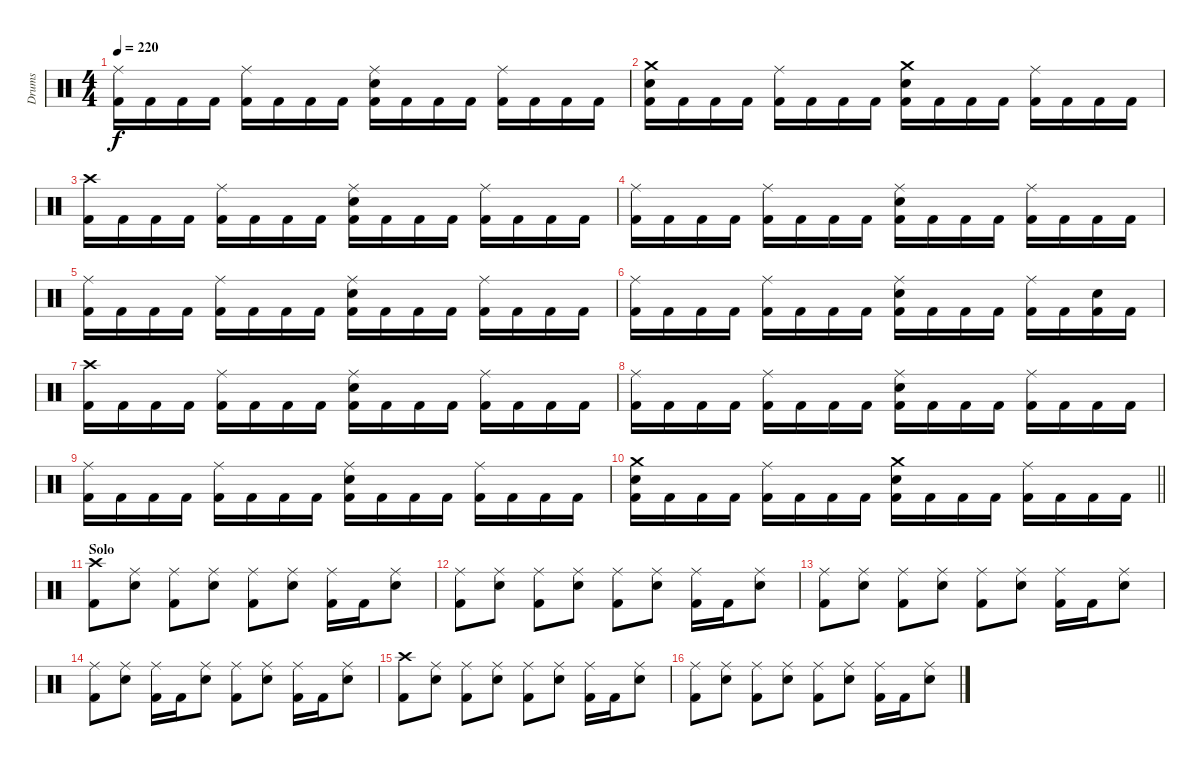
\track ("Drums" "Drums") {instrument percussion}
\staff {score}
\articulation defaults
\ts (4 4)
\tempo 220
\clef neutral
\ks c
("Ride (middle)" "Kick (hit) 2").16{dy f} "Kick (hit) 2".16 "Kick (hit) 2".16 "Kick (hit) 2".16 ("Ride (middle)" "Kick (hit) 2").16 "Kick (hit) 2".16 "Kick (hit) 2".16 "Kick (hit) 2".16 ("Ride (middle)" "Snare (hit) 2" "Kick (hit) 2").16 "Kick (hit) 2".16 "Kick (hit) 2".16 "Kick (hit) 2".16 ("Ride (middle)" "Kick (hit) 2").16 "Kick (hit) 2".16 "Kick (hit) 2".16 "Kick (hit) 2".16 |
("Crash medium (hit)" "Snare (hit) 2" "Kick (hit) 2").16 "Kick (hit) 2".16 "Kick (hit) 2".16 "Kick (hit) 2".16 ("Ride (middle)" "Kick (hit) 2").16 "Kick (hit) 2".16 "Kick (hit) 2".16 "Kick (hit) 2".16 ("Crash medium (hit)" "Snare (hit) 2" "Kick (hit) 2").16 "Kick (hit) 2".16 "Kick (hit) 2".16 "Kick (hit) 2".16 ("Ride (middle)" "Kick (hit) 2").16 "Kick (hit) 2".16 "Kick (hit) 2".16 "Kick (hit) 2".16 |
("Crash high (hit)" "Kick (hit) 2").16 "Kick (hit) 2".16 "Kick (hit) 2".16 "Kick (hit) 2".16 ("Ride (middle)" "Kick (hit) 2").16 "Kick (hit) 2".16 "Kick (hit) 2".16 "Kick (hit) 2".16 ("Ride (middle)" "Snare (hit) 2" "Kick (hit) 2").16 "Kick (hit) 2".16 "Kick (hit) 2".16 "Kick (hit) 2".16 ("Ride (middle)" "Kick (hit) 2").16 "Kick (hit) 2".16 "Kick (hit) 2".16 "Kick (hit) 2".16 |
("Ride (middle)" "Kick (hit) 2").16 "Kick (hit) 2".16 "Kick (hit) 2".16 "Kick (hit) 2".16 ("Ride (middle)" "Kick (hit) 2").16 "Kick (hit) 2".16 "Kick (hit) 2".16 "Kick (hit) 2".16 ("Ride (middle)" "Snare (hit) 2" "Kick (hit) 2").16 "Kick (hit) 2".16 "Kick (hit) 2".16 "Kick (hit) 2".16 ("Ride (middle)" "Kick (hit) 2").16 "Kick (hit) 2".16 "Kick (hit) 2".16 "Kick (hit) 2".16 |
("Ride (middle)" "Kick (hit) 2").16 "Kick (hit) 2".16 "Kick (hit) 2".16 "Kick (hit) 2".16 ("Ride (middle)" "Kick (hit) 2").16 "Kick (hit) 2".16 "Kick (hit) 2".16 "Kick (hit) 2".16 ("Ride (middle)" "Snare (hit) 2" "Kick (hit) 2").16 "Kick (hit) 2".16 "Kick (hit) 2".16 "Kick (hit) 2".16 ("Ride (middle)" "Kick (hit) 2").16 "Kick (hit) 2".16 "Kick (hit) 2".16 "Kick (hit) 2".16 |
("Ride (middle)" "Kick (hit) 2").16 "Kick (hit) 2".16 "Kick (hit) 2".16 "Kick (hit) 2".16 ("Ride (middle)" "Kick (hit) 2").16 "Kick (hit) 2".16 "Kick (hit) 2".16 "Kick (hit) 2".16 ("Ride (middle)" "Snare (hit) 2" "Kick (hit) 2").16 "Kick (hit) 2".16 "Kick (hit) 2".16 "Kick (hit) 2".16 ("Ride (middle)" "Kick (hit) 2").16 "Kick (hit) 2".16 ("Snare (hit) 2" "Kick (hit) 2").16 "Kick (hit) 2".16 |
("Crash high (hit)" "Kick (hit) 2").16 "Kick (hit) 2".16 "Kick (hit) 2".16 "Kick (hit) 2".16 ("Ride (middle)" "Kick (hit) 2").16 "Kick (hit) 2".16 "Kick (hit) 2".16 "Kick (hit) 2".16 ("Ride (middle)" "Snare (hit) 2" "Kick (hit) 2").16 "Kick (hit) 2".16 "Kick (hit) 2".16 "Kick (hit) 2".16 ("Ride (middle)" "Kick (hit) 2").16 "Kick (hit) 2".16 "Kick (hit) 2".16 "Kick (hit) 2".16 |
("Ride (middle)" "Kick (hit) 2").16 "Kick (hit) 2".16 "Kick (hit) 2".16 "Kick (hit) 2".16 ("Ride (middle)" "Kick (hit) 2").16 "Kick (hit) 2".16 "Kick (hit) 2".16 "Kick (hit) 2".16 ("Ride (middle)" "Snare (hit) 2" "Kick (hit) 2").16 "Kick (hit) 2".16 "Kick (hit) 2".16 "Kick (hit) 2".16 ("Ride (middle)" "Kick (hit) 2").16 "Kick (hit) 2".16 "Kick (hit) 2".16 "Kick (hit) 2".16 |
("Ride (middle)" "Kick (hit) 2").16 "Kick (hit) 2".16 "Kick (hit) 2".16 "Kick (hit) 2".16 ("Ride (middle)" "Kick (hit) 2").16 "Kick (hit) 2".16 "Kick (hit) 2".16 "Kick (hit) 2".16 ("Ride (middle)" "Snare (hit) 2" "Kick (hit) 2").16 "Kick (hit) 2".16 "Kick (hit) 2".16 "Kick (hit) 2".16 ("Ride (middle)" "Kick (hit) 2").16 "Kick (hit) 2".16 "Kick (hit) 2".16 "Kick (hit) 2".16 |
\barLineRight lightlight
("Crash medium (hit)" "Snare (hit) 2" "Kick (hit) 2").16 "Kick (hit) 2".16 "Kick (hit) 2".16 "Kick (hit) 2".16 ("Ride (middle)" "Kick (hit) 2").16 "Kick (hit) 2".16 "Kick (hit) 2".16 "Kick (hit) 2".16 ("Crash medium (hit)" "Snare (hit) 2" "Kick (hit) 2").16 "Kick (hit) 2".16 "Kick (hit) 2".16 "Kick (hit) 2".16 ("Ride (middle)" "Kick (hit) 2").16 "Kick (hit) 2".16 "Kick (hit) 2".16 "Kick (hit) 2".16 |
\section ("" "Solo")
("Crash high (hit)" "Kick (hit) 2").8 ("Ride (middle)" "Snare (hit) 2").8 ("Ride (middle)" "Kick (hit) 2").8 ("Ride (middle)" "Snare (hit) 2").8 ("Ride (middle)" "Kick (hit) 2").8 ("Ride (middle)" "Snare (hit) 2").8 ("Ride (middle)" "Kick (hit) 2").16 "Kick (hit) 2".16 ("Ride (middle)" "Snare (hit) 2").8 |
("Ride (middle)" "Kick (hit) 2").8 ("Ride (middle)" "Snare (hit) 2").8 ("Ride (middle)" "Kick (hit) 2").8 ("Ride (middle)" "Snare (hit) 2").8 ("Ride (middle)" "Kick (hit) 2").8 ("Ride (middle)" "Snare (hit) 2").8 ("Ride (middle)" "Kick (hit) 2").16 "Kick (hit) 2".16 ("Ride (middle)" "Snare (hit) 2").8 |
("Ride (middle)" "Kick (hit) 2").8 ("Ride (middle)" "Snare (hit) 2").8 ("Ride (middle)" "Kick (hit) 2").8 ("Ride (middle)" "Snare (hit) 2").8 ("Ride (middle)" "Kick (hit) 2").8 ("Ride (middle)" "Snare (hit) 2").8 ("Ride (middle)" "Kick (hit) 2").16 "Kick (hit) 2".16 ("Ride (middle)" "Snare (hit) 2").8 |
("Ride (middle)" "Kick (hit) 2").8 ("Ride (middle)" "Snare (hit) 2").8 ("Ride (middle)" "Kick (hit) 2").16 "Kick (hit) 2".16 ("Ride (middle)" "Snare (hit) 2").8 ("Ride (middle)" "Kick (hit) 2").8 ("Ride (middle)" "Snare (hit) 2").8 ("Ride (middle)" "Kick (hit) 2").16 "Kick (hit) 2".16 ("Ride (middle)" "Snare (hit) 2").8 |
("Crash high (hit)" "Kick (hit) 2").8 ("Ride (middle)" "Snare (hit) 2").8 ("Ride (middle)" "Kick (hit) 2").8 ("Ride (middle)" "Snare (hit) 2").8 ("Ride (middle)" "Kick (hit) 2").8 ("Ride (middle)" "Snare (hit) 2").8 ("Ride (middle)" "Kick (hit) 2").16 "Kick (hit) 2".16 ("Ride (middle)" "Snare (hit) 2").8 |
("Ride (middle)" "Kick (hit) 2").8 ("Ride (middle)" "Snare (hit) 2").8 ("Ride (middle)" "Kick (hit) 2").8 ("Ride (middle)" "Snare (hit) 2").8 ("Ride (middle)" "Kick (hit) 2").8 ("Ride (middle)" "Snare (hit) 2").8 ("Ride (middle)" "Kick (hit) 2").16 "Kick (hit) 2".16 ("Ride (middle)" "Snare (hit) 2").8
